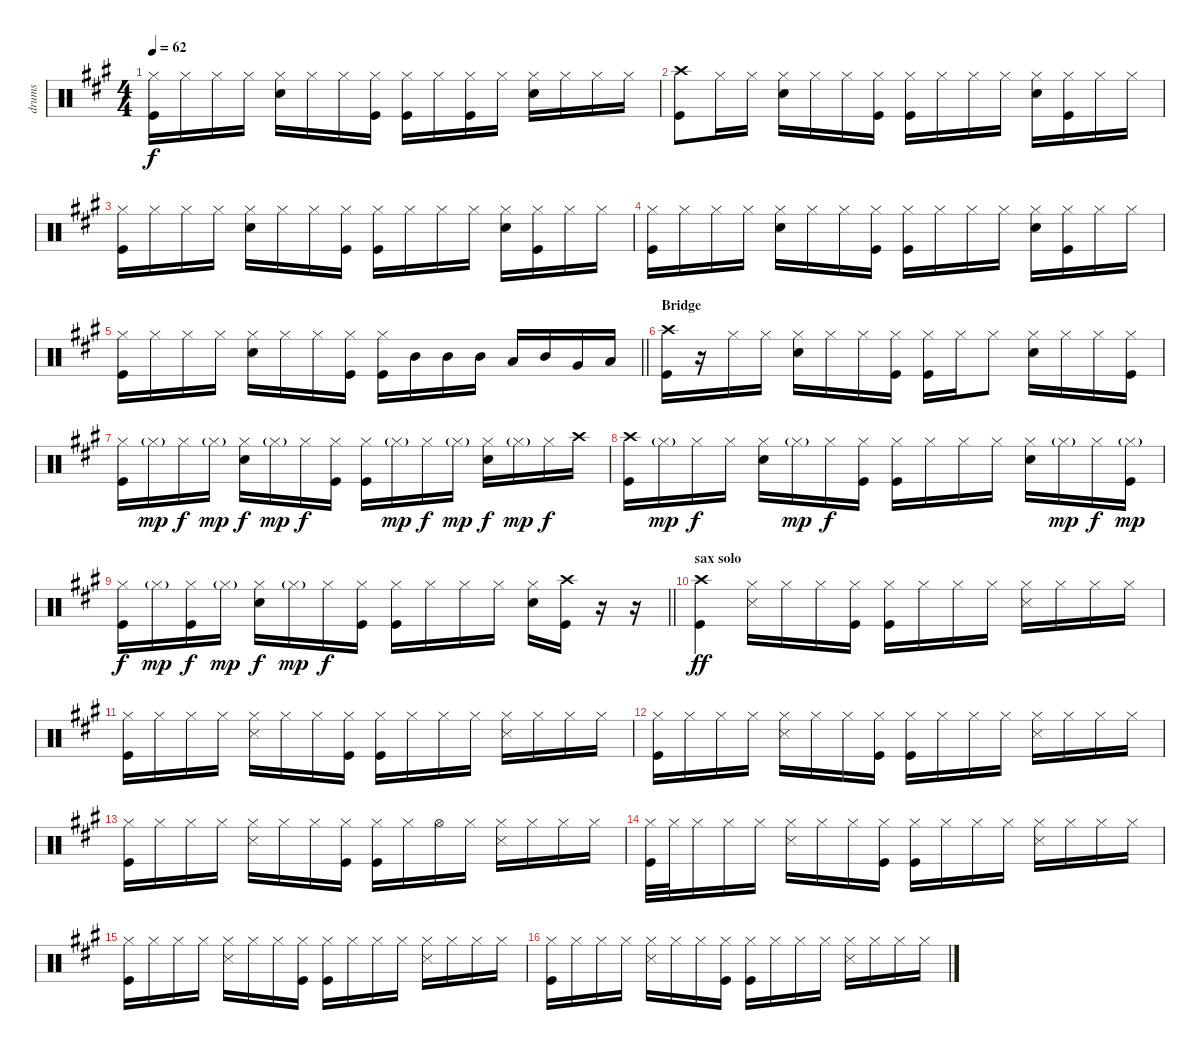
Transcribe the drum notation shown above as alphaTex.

\track ("drums" "drums") {instrument percussion}
\staff {score}
\articulation defaults
\ts (4 4)
\tempo 62
\clef neutral
\ks a
("Hi-Hat (closed)" "Kick (hit)").16{dy f} "Hi-Hat (closed)".16 "Hi-Hat (closed)".16 "Hi-Hat (closed)".16 ("Electric Snare (hit)" "Hi-Hat (closed)").16 "Hi-Hat (closed)".16 "Hi-Hat (closed)".16 ("Hi-Hat (closed)" "Kick (hit)").16 ("Hi-Hat (closed)" "Kick (hit)").16 "Hi-Hat (closed)".16 ("Hi-Hat (closed)" "Kick (hit)").16 "Hi-Hat (closed)".16 ("Electric Snare (hit)" "Hi-Hat (closed)").16 "Hi-Hat (closed)".16 "Hi-Hat (closed)".16 "Hi-Hat (closed)".16 |
("Crash high (hit)" "Kick (hit)").8 "Hi-Hat (closed)".16 "Hi-Hat (closed)".16 ("Electric Snare (hit)" "Hi-Hat (closed)").16 "Hi-Hat (closed)".16 "Hi-Hat (closed)".16 ("Hi-Hat (closed)" "Kick (hit)").16 ("Hi-Hat (closed)" "Kick (hit)").16 "Hi-Hat (closed)".16 "Hi-Hat (closed)".16 "Hi-Hat (closed)".16 ("Electric Snare (hit)" "Hi-Hat (closed)").16 ("Hi-Hat (closed)" "Kick (hit)").16 "Hi-Hat (closed)".16 "Hi-Hat (closed)".16 |
("Hi-Hat (closed)" "Kick (hit)").16 "Hi-Hat (closed)".16 "Hi-Hat (closed)".16 "Hi-Hat (closed)".16 ("Electric Snare (hit)" "Hi-Hat (closed)").16 "Hi-Hat (closed)".16 "Hi-Hat (closed)".16 ("Hi-Hat (closed)" "Kick (hit)").16 ("Hi-Hat (closed)" "Kick (hit)").16 "Hi-Hat (closed)".16 "Hi-Hat (closed)".16 "Hi-Hat (closed)".16 ("Electric Snare (hit)" "Hi-Hat (closed)").16 ("Hi-Hat (closed)" "Kick (hit)").16 "Hi-Hat (closed)".16 "Hi-Hat (closed)".16 |
("Hi-Hat (closed)" "Kick (hit)").16 "Hi-Hat (closed)".16 "Hi-Hat (closed)".16 "Hi-Hat (closed)".16 ("Electric Snare (hit)" "Hi-Hat (closed)").16 "Hi-Hat (closed)".16 "Hi-Hat (closed)".16 ("Hi-Hat (closed)" "Kick (hit)").16 ("Hi-Hat (closed)" "Kick (hit)").16 "Hi-Hat (closed)".16 "Hi-Hat (closed)".16 "Hi-Hat (closed)".16 ("Electric Snare (hit)" "Hi-Hat (closed)").16 ("Hi-Hat (closed)" "Kick (hit)").16 "Hi-Hat (closed)".16 "Hi-Hat (closed)".16 |
\barLineRight lightlight
("Hi-Hat (closed)" "Kick (hit)").16 "Hi-Hat (closed)".16 "Hi-Hat (closed)".16 "Hi-Hat (closed)".16 ("Electric Snare (hit)" "Hi-Hat (closed)").16 "Hi-Hat (closed)".16 "Hi-Hat (closed)".16 ("Hi-Hat (closed)" "Kick (hit)").16 ("Hi-Hat (closed)" "Kick (hit)").16 "Mid Tom (hit)".16 "Mid Tom (hit)".16 "Mid Tom (hit)".16 "Low Tom (hit)".16 "Mid Tom (hit)".16 "Very Low Tom (hit)".16 "Low Floor Tom (hit)".16 |
\section ("" "Bridge")
("Crash high (hit)" "Kick (hit)").16 r.16 "Hi-Hat (closed)".16 "Hi-Hat (closed)".16 ("Electric Snare (hit)" "Hi-Hat (closed)").16 "Hi-Hat (closed)".16 "Hi-Hat (closed)".16 ("Hi-Hat (closed)" "Kick (hit)").16 ("Hi-Hat (closed)" "Kick (hit)").16 "Hi-Hat (closed)".16 "Hi-Hat (closed)".8 ("Electric Snare (hit)" "Hi-Hat (closed)").16 "Hi-Hat (closed)".16 "Hi-Hat (closed)".16 ("Hi-Hat (closed)" "Kick (hit)").16 |
("Hi-Hat (closed)" "Kick (hit)").16 "Hi-Hat (closed)"{g}.16{dy mp} "Hi-Hat (closed)".16{dy f} "Hi-Hat (closed)"{g}.16{dy mp} ("Electric Snare (hit)" "Hi-Hat (closed)").16{dy f} "Hi-Hat (closed)"{g}.16{dy mp} "Hi-Hat (closed)".16{dy f} ("Hi-Hat (closed)" "Kick (hit)").16 ("Hi-Hat (closed)" "Kick (hit)").16 "Hi-Hat (closed)"{g}.16{dy mp} "Hi-Hat (closed)".16{dy f} "Hi-Hat (closed)"{g}.16{dy mp} ("Electric Snare (hit)" "Hi-Hat (closed)").16{dy f} "Hi-Hat (closed)"{g}.16{dy mp} "Hi-Hat (closed)".16{dy f} "Crash high (hit)".16 |
("Crash high (hit)" "Kick (hit)").16 "Hi-Hat (closed)"{g}.16{dy mp} "Hi-Hat (closed)".16{dy f} "Hi-Hat (closed)".16 ("Electric Snare (hit)" "Hi-Hat (closed)").16 "Hi-Hat (closed)"{g}.16{dy mp} "Hi-Hat (closed)".16{dy f} ("Hi-Hat (closed)" "Kick (hit)").16 ("Hi-Hat (closed)" "Kick (hit)").16 "Hi-Hat (closed)".16 "Hi-Hat (closed)".16 "Hi-Hat (closed)".16 ("Electric Snare (hit)" "Hi-Hat (closed)").16 "Hi-Hat (closed)"{g}.16{dy mp} "Hi-Hat (closed)".16{dy f} ("Hi-Hat (closed)"{g} "Kick (hit)").16{dy mp} |
\barLineRight lightlight
("Hi-Hat (closed)" "Kick (hit)").16{dy f} "Hi-Hat (closed)"{g}.16{dy mp} ("Hi-Hat (closed)" "Kick (hit)").16{dy f} "Hi-Hat (closed)"{g}.16{dy mp} ("Electric Snare (hit)" "Hi-Hat (closed)").16{dy f} "Hi-Hat (closed)"{g}.16{dy mp} "Hi-Hat (closed)".16{dy f} ("Hi-Hat (closed)" "Kick (hit)").16 ("Hi-Hat (closed)" "Kick (hit)").16 "Hi-Hat (closed)".16 "Hi-Hat (closed)".16 "Hi-Hat (closed)".16 ("Electric Snare (hit)" "Hi-Hat (closed)").16 ("Crash high (hit)" "Kick (hit)").16 r.16 r.16 |
\section ("" "sax solo")
("Crash high (hit)" "Kick (hit)").4{dy ff} ("Snare (side stick) 3" "Hi-Hat (closed)").16 "Hi-Hat (closed)".16 "Hi-Hat (closed)".16 ("Hi-Hat (closed)" "Kick (hit)").16 ("Hi-Hat (closed)" "Kick (hit)").16 "Hi-Hat (closed)".16 "Hi-Hat (closed)".16 "Hi-Hat (closed)".16 ("Snare (side stick) 3" "Hi-Hat (closed)").16 "Hi-Hat (closed)".16 "Hi-Hat (closed)".16 "Hi-Hat (closed)".16 |
("Hi-Hat (closed)" "Kick (hit)").16 "Hi-Hat (closed)".16 "Hi-Hat (closed)".16 "Hi-Hat (closed)".16 ("Snare (side stick) 3" "Hi-Hat (closed)").16 "Hi-Hat (closed)".16 "Hi-Hat (closed)".16 ("Hi-Hat (closed)" "Kick (hit)").16 ("Hi-Hat (closed)" "Kick (hit)").16 "Hi-Hat (closed)".16 "Hi-Hat (closed)".16 "Hi-Hat (closed)".16 ("Snare (side stick) 3" "Hi-Hat (closed)").16 "Hi-Hat (closed)".16 "Hi-Hat (closed)".16 "Hi-Hat (closed)".16 |
("Hi-Hat (closed)" "Kick (hit)").16 "Hi-Hat (closed)".16 "Hi-Hat (closed)".16 "Hi-Hat (closed)".16 ("Snare (side stick) 3" "Hi-Hat (closed)").16 "Hi-Hat (closed)".16 "Hi-Hat (closed)".16 ("Hi-Hat (closed)" "Kick (hit)").16 ("Hi-Hat (closed)" "Kick (hit)").16 "Hi-Hat (closed)".16 "Hi-Hat (closed)".16 "Hi-Hat (closed)".16 ("Snare (side stick) 3" "Hi-Hat (closed)").16 "Hi-Hat (closed)".16 "Hi-Hat (closed)".16 "Hi-Hat (closed)".16 |
("Hi-Hat (closed)" "Kick (hit)").16 "Hi-Hat (closed)".16 "Hi-Hat (closed)".16 "Hi-Hat (closed)".16 ("Snare (side stick) 3" "Hi-Hat (closed)").16 "Hi-Hat (closed)".16 "Hi-Hat (closed)".16 ("Hi-Hat (closed)" "Kick (hit)").16 ("Hi-Hat (closed)" "Kick (hit)").16 "Hi-Hat (closed)".16 "Hi-Hat (open)".16 "Hi-Hat (closed)".16 ("Snare (side stick) 3" "Hi-Hat (closed)").16 "Hi-Hat (closed)".16 "Hi-Hat (closed)".16 "Hi-Hat (closed)".16 |
("Hi-Hat (closed)" "Kick (hit)").32 "Hi-Hat (closed)".32 "Hi-Hat (closed)".16 "Hi-Hat (closed)".16 "Hi-Hat (closed)".16 ("Snare (side stick) 3" "Hi-Hat (closed)").16 "Hi-Hat (closed)".16 "Hi-Hat (closed)".16 ("Hi-Hat (closed)" "Kick (hit)").16 ("Hi-Hat (closed)" "Kick (hit)").16 "Hi-Hat (closed)".16 "Hi-Hat (closed)".16 "Hi-Hat (closed)".16 ("Snare (side stick) 3" "Hi-Hat (closed)").16 "Hi-Hat (closed)".16 "Hi-Hat (closed)".16 "Hi-Hat (closed)".16 |
("Hi-Hat (closed)" "Kick (hit)").16 "Hi-Hat (closed)".16 "Hi-Hat (closed)".16 "Hi-Hat (closed)".16 ("Snare (side stick) 3" "Hi-Hat (closed)").16 "Hi-Hat (closed)".16 "Hi-Hat (closed)".16 ("Hi-Hat (closed)" "Kick (hit)").16 ("Hi-Hat (closed)" "Kick (hit)").16 "Hi-Hat (closed)".16 "Hi-Hat (closed)".16 "Hi-Hat (closed)".16 ("Snare (side stick) 3" "Hi-Hat (closed)").16 "Hi-Hat (closed)".16 "Hi-Hat (closed)".16 "Hi-Hat (closed)".16 |
("Hi-Hat (closed)" "Kick (hit)").16 "Hi-Hat (closed)".16 "Hi-Hat (closed)".16 "Hi-Hat (closed)".16 ("Snare (side stick) 3" "Hi-Hat (closed)").16 "Hi-Hat (closed)".16 "Hi-Hat (closed)".16 ("Hi-Hat (closed)" "Kick (hit)").16 ("Hi-Hat (closed)" "Kick (hit)").16 "Hi-Hat (closed)".16 "Hi-Hat (closed)".16 "Hi-Hat (closed)".16 ("Snare (side stick) 3" "Hi-Hat (closed)").16 "Hi-Hat (closed)".16 "Hi-Hat (closed)".16 "Hi-Hat (closed)".16
